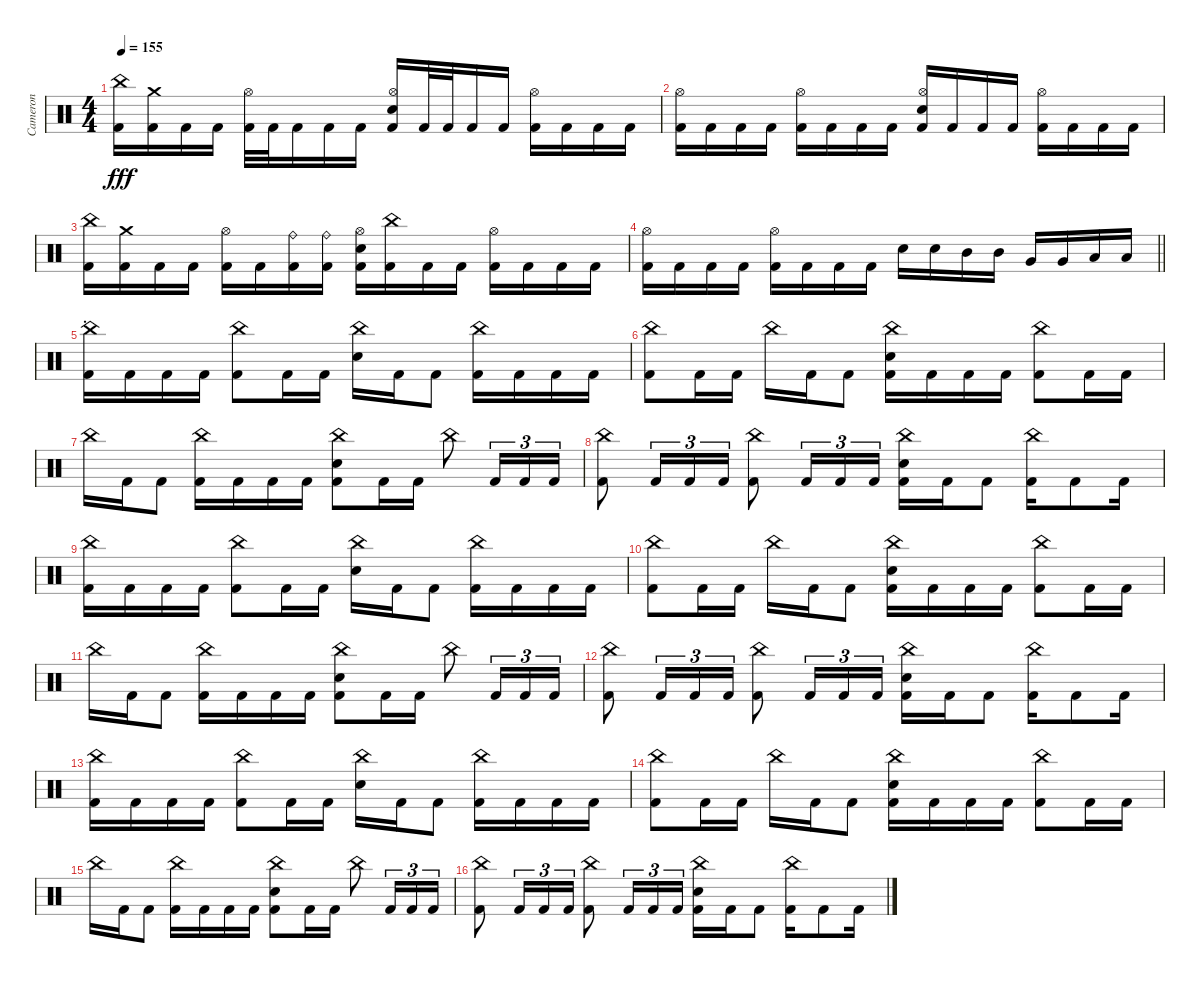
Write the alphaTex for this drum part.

\track ("Cameron" "Cameron") {instrument percussion}
\staff {score}
\articulation defaults
\ts (4 4)
\tempo 155
\clef neutral
\ks c
("China (hit)" "Kick (hit) 2").16{dy fff} ("Crash medium (hit)" "Kick (hit) 2").16 "Kick (hit) 2".16 "Kick (hit) 2".16 ("Hi-Hat (open)" "Kick (hit) 2").32 "Kick (hit) 2".32 "Kick (hit) 2".16 "Kick (hit) 2".16 "Kick (hit) 2".16 ("Hi-Hat (open)" "Electric Snare (hit)" "Kick (hit) 2").16 "Kick (hit) 2".32 "Kick (hit) 2".32 "Kick (hit) 2".16 "Kick (hit) 2".16 ("Hi-Hat (open)" "Kick (hit) 2").16 "Kick (hit) 2".16 "Kick (hit) 2".16 "Kick (hit) 2".16 |
("Hi-Hat (open)" "Kick (hit) 2").16 "Kick (hit) 2".16 "Kick (hit) 2".16 "Kick (hit) 2".16 ("Hi-Hat (open)" "Kick (hit) 2").16 "Kick (hit) 2".16 "Kick (hit) 2".16 "Kick (hit) 2".16 ("Hi-Hat (open)" "Electric Snare (hit)" "Kick (hit) 2").16 "Kick (hit) 2".16 "Kick (hit) 2".16 "Kick (hit) 2".16 ("Hi-Hat (open)" "Kick (hit) 2").16 "Kick (hit) 2".16 "Kick (hit) 2".16 "Kick (hit) 2".16 |
("China (hit)" "Kick (hit) 2").16 ("Crash medium (hit)" "Kick (hit) 2").16 "Kick (hit) 2".16 "Kick (hit) 2".16 ("Hi-Hat (open)" "Kick (hit) 2").16 "Kick (hit) 2".16 ("Ride (bell)" "Kick (hit) 2").16 ("Ride (bell)" "Kick (hit) 2").16 ("Hi-Hat (open)" "Electric Snare (hit)" "Kick (hit) 2").16 ("China (hit)" "Kick (hit) 2").16 "Kick (hit) 2".16 "Kick (hit) 2".16 ("Hi-Hat (open)" "Kick (hit) 2").16 "Kick (hit) 2".16 "Kick (hit) 2".16 "Kick (hit) 2".16 |
\barLineRight lightlight
("Hi-Hat (open)" "Kick (hit) 2").16 "Kick (hit) 2".16 "Kick (hit) 2".16 "Kick (hit) 2".16 ("Hi-Hat (open)" "Kick (hit) 2").16 "Kick (hit) 2".16 "Kick (hit) 2".16 "Kick (hit) 2".16 "Electric Snare (hit)".16 "Electric Snare (hit)".16 "Mid Tom (hit)".16 "Mid Tom (hit)".16 "Very Low Tom (hit)".16 "Very Low Tom (hit)".16 "Low Floor Tom (hit)".16 "Low Floor Tom (hit)".16 |
\section ("" ".")
("China (hit)" "Kick (hit) 2").16 "Kick (hit) 2".16 "Kick (hit) 2".16 "Kick (hit) 2".16 ("China (hit)" "Kick (hit) 2").8 "Kick (hit) 2".16 "Kick (hit) 2".16 ("China (hit)" "Electric Snare (hit)").16 "Kick (hit) 2".16 "Kick (hit) 2".8 ("China (hit)" "Kick (hit) 2").16 "Kick (hit) 2".16 "Kick (hit) 2".16 "Kick (hit) 2".16 |
("China (hit)" "Kick (hit) 2").8 "Kick (hit) 2".16 "Kick (hit) 2".16 "China (hit)".16 "Kick (hit) 2".16 "Kick (hit) 2".8 ("China (hit)" "Electric Snare (hit)" "Kick (hit) 2").16 "Kick (hit) 2".16 "Kick (hit) 2".16 "Kick (hit) 2".16 ("China (hit)" "Kick (hit) 2").8 "Kick (hit) 2".16 "Kick (hit) 2".16 |
"China (hit)".16 "Kick (hit) 2".16 "Kick (hit) 2".8 ("China (hit)" "Kick (hit) 2").16 "Kick (hit) 2".16 "Kick (hit) 2".16 "Kick (hit) 2".16 ("China (hit)" "Electric Snare (hit)" "Kick (hit) 2").8 "Kick (hit) 2".16 "Kick (hit) 2".16 "China (hit)".8 "Kick (hit) 2".16{tu (3 2)} "Kick (hit) 2".16{tu (3 2)} "Kick (hit) 2".16{tu (3 2)} |
("China (hit)" "Kick (hit) 2").8 "Kick (hit) 2".16{tu (3 2)} "Kick (hit) 2".16{tu (3 2)} "Kick (hit) 2".16{tu (3 2)} ("China (hit)" "Kick (hit) 2").8 "Kick (hit) 2".16{tu (3 2)} "Kick (hit) 2".16{tu (3 2)} "Kick (hit) 2".16{tu (3 2)} ("China (hit)" "Electric Snare (hit)" "Kick (hit) 2").16 "Kick (hit) 2".16 "Kick (hit) 2".8 ("China (hit)" "Kick (hit) 2").16 "Kick (hit) 2".8 "Kick (hit) 2".16 |
("China (hit)" "Kick (hit) 2").16 "Kick (hit) 2".16 "Kick (hit) 2".16 "Kick (hit) 2".16 ("China (hit)" "Kick (hit) 2").8 "Kick (hit) 2".16 "Kick (hit) 2".16 ("China (hit)" "Electric Snare (hit)").16 "Kick (hit) 2".16 "Kick (hit) 2".8 ("China (hit)" "Kick (hit) 2").16 "Kick (hit) 2".16 "Kick (hit) 2".16 "Kick (hit) 2".16 |
("China (hit)" "Kick (hit) 2").8 "Kick (hit) 2".16 "Kick (hit) 2".16 "China (hit)".16 "Kick (hit) 2".16 "Kick (hit) 2".8 ("China (hit)" "Electric Snare (hit)" "Kick (hit) 2").16 "Kick (hit) 2".16 "Kick (hit) 2".16 "Kick (hit) 2".16 ("China (hit)" "Kick (hit) 2").8 "Kick (hit) 2".16 "Kick (hit) 2".16 |
"China (hit)".16 "Kick (hit) 2".16 "Kick (hit) 2".8 ("China (hit)" "Kick (hit) 2").16 "Kick (hit) 2".16 "Kick (hit) 2".16 "Kick (hit) 2".16 ("China (hit)" "Electric Snare (hit)" "Kick (hit) 2").8 "Kick (hit) 2".16 "Kick (hit) 2".16 "China (hit)".8 "Kick (hit) 2".16{tu (3 2)} "Kick (hit) 2".16{tu (3 2)} "Kick (hit) 2".16{tu (3 2)} |
("China (hit)" "Kick (hit) 2").8 "Kick (hit) 2".16{tu (3 2)} "Kick (hit) 2".16{tu (3 2)} "Kick (hit) 2".16{tu (3 2)} ("China (hit)" "Kick (hit) 2").8 "Kick (hit) 2".16{tu (3 2)} "Kick (hit) 2".16{tu (3 2)} "Kick (hit) 2".16{tu (3 2)} ("China (hit)" "Electric Snare (hit)" "Kick (hit) 2").16 "Kick (hit) 2".16 "Kick (hit) 2".8 ("China (hit)" "Kick (hit) 2").16 "Kick (hit) 2".8 "Kick (hit) 2".16 |
("China (hit)" "Kick (hit) 2").16 "Kick (hit) 2".16 "Kick (hit) 2".16 "Kick (hit) 2".16 ("China (hit)" "Kick (hit) 2").8 "Kick (hit) 2".16 "Kick (hit) 2".16 ("China (hit)" "Electric Snare (hit)").16 "Kick (hit) 2".16 "Kick (hit) 2".8 ("China (hit)" "Kick (hit) 2").16 "Kick (hit) 2".16 "Kick (hit) 2".16 "Kick (hit) 2".16 |
("China (hit)" "Kick (hit) 2").8 "Kick (hit) 2".16 "Kick (hit) 2".16 "China (hit)".16 "Kick (hit) 2".16 "Kick (hit) 2".8 ("China (hit)" "Electric Snare (hit)" "Kick (hit) 2").16 "Kick (hit) 2".16 "Kick (hit) 2".16 "Kick (hit) 2".16 ("China (hit)" "Kick (hit) 2").8 "Kick (hit) 2".16 "Kick (hit) 2".16 |
"China (hit)".16 "Kick (hit) 2".16 "Kick (hit) 2".8 ("China (hit)" "Kick (hit) 2").16 "Kick (hit) 2".16 "Kick (hit) 2".16 "Kick (hit) 2".16 ("China (hit)" "Electric Snare (hit)" "Kick (hit) 2").8 "Kick (hit) 2".16 "Kick (hit) 2".16 "China (hit)".8 "Kick (hit) 2".16{tu (3 2)} "Kick (hit) 2".16{tu (3 2)} "Kick (hit) 2".16{tu (3 2)} |
("China (hit)" "Kick (hit) 2").8 "Kick (hit) 2".16{tu (3 2)} "Kick (hit) 2".16{tu (3 2)} "Kick (hit) 2".16{tu (3 2)} ("China (hit)" "Kick (hit) 2").8 "Kick (hit) 2".16{tu (3 2)} "Kick (hit) 2".16{tu (3 2)} "Kick (hit) 2".16{tu (3 2)} ("China (hit)" "Electric Snare (hit)" "Kick (hit) 2").16 "Kick (hit) 2".16 "Kick (hit) 2".8 ("China (hit)" "Kick (hit) 2").16 "Kick (hit) 2".8 "Kick (hit) 2".16
